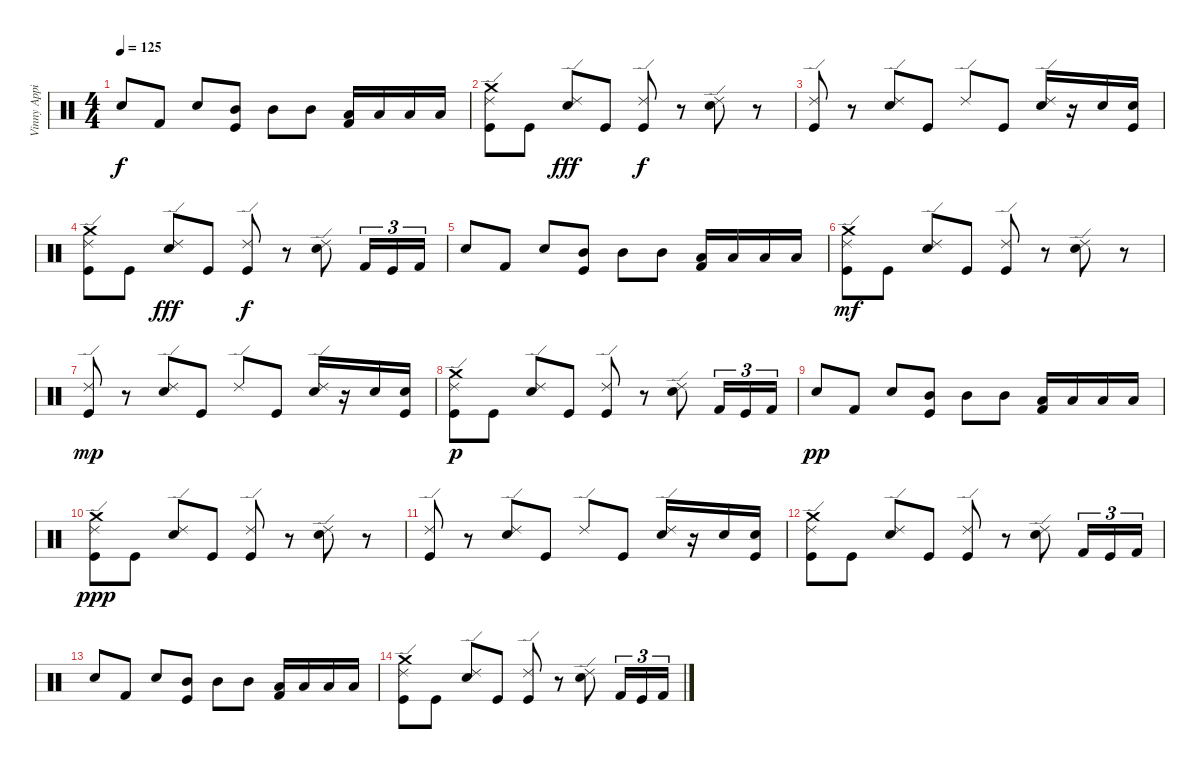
\track ("Vinny Appice - Drums" "Vinny Appi") {instrument percussion}
\staff {score}
\articulation defaults
\ts (4 4)
\tempo 125
\clef neutral
\ks c "Snare (hit) 2".8{dy f} "Kick (hit) 2".8 "Electric Snare (hit)".8
("Kick (hit)" "Mid Tom (hit)").8 "Mid Tom (hit)".8 "Mid Tom (hit)".8 ("Kick (hit) 2" "Low Tom (hit)").16 "Low Tom (hit)".16 "Low Tom (hit)".16 "Low Tom (hit)".16 |
("Kick (hit)" "Ride (edge) 2" "Crash medium (hit)").8 "Kick (hit)".8 ("Ride (edge) 2" "Snare (hit) 2").8{dy fff} "Kick (hit)".8 ("Ride (edge) 2" "Kick (hit)").8{dy f} r.8 ("Ride (edge) 2" "Snare (hit) 2").8 r.8 |
("Ride (edge) 2" "Kick (hit)").8 r.8 ("Ride (edge) 2" "Snare (hit) 2").8 "Kick (hit)".8 "Ride (edge) 2".8 "Kick (hit)".8 ("Ride (edge) 2" "Snare (hit) 2").16 r.16 "Snare (hit) 2".16 ("Kick (hit)" "Snare (hit) 2").16 |
("Kick (hit)" "Ride (edge) 2" "Crash medium (hit)").8 "Kick (hit)".8 ("Ride (edge) 2" "Snare (hit) 2").8{dy fff} "Kick (hit)".8 ("Ride (edge) 2" "Kick (hit)").8{dy f} r.8 ("Ride (edge) 2" "Snare (hit) 2").8 "Kick (hit) 2".16{tu (3 2)} "Kick (hit)".16{tu (3 2)} "Kick (hit) 2".16{tu (3 2)} |
"Snare (hit) 2".8 "Kick (hit) 2".8 "Electric Snare (hit)".8 ("Kick (hit)" "Mid Tom (hit)").8 "Mid Tom (hit)".8 "Mid Tom (hit)".8 ("Kick (hit) 2" "Low Tom (hit)").16 "Low Tom (hit)".16 "Low Tom (hit)".16 "Low Tom (hit)".16 |
("Kick (hit)" "Ride (edge) 2" "Crash medium (hit)").8{dy mf} "Kick (hit)".8 ("Ride (edge) 2" "Snare (hit) 2").8 "Kick (hit)".8 ("Ride (edge) 2" "Kick (hit)").8 r.8 ("Ride (edge) 2" "Snare (hit) 2").8 r.8 |
("Ride (edge) 2" "Kick (hit)").8{dy mp} r.8 ("Ride (edge) 2" "Snare (hit) 2").8 "Kick (hit)".8 "Ride (edge) 2".8 "Kick (hit)".8 ("Ride (edge) 2" "Snare (hit) 2").16 r.16 "Snare (hit) 2".16 ("Kick (hit)" "Snare (hit) 2").16 |
("Kick (hit)" "Ride (edge) 2" "Crash medium (hit)").8{dy p} "Kick (hit)".8 ("Ride (edge) 2" "Snare (hit) 2").8 "Kick (hit)".8 ("Ride (edge) 2" "Kick (hit)").8 r.8 ("Ride (edge) 2" "Snare (hit) 2").8 "Kick (hit) 2".16{tu (3 2)} "Kick (hit)".16{tu (3 2)} "Kick (hit) 2".16{tu (3 2)} |
"Snare (hit) 2".8{dy pp} "Kick (hit) 2".8 "Electric Snare (hit)".8 ("Kick (hit)" "Mid Tom (hit)").8 "Mid Tom (hit)".8 "Mid Tom (hit)".8 ("Kick (hit) 2" "Low Tom (hit)").16 "Low Tom (hit)".16 "Low Tom (hit)".16 "Low Tom (hit)".16 |
("Kick (hit)" "Ride (edge) 2" "Crash medium (hit)").8{dy ppp} "Kick (hit)".8 ("Ride (edge) 2" "Snare (hit) 2").8 "Kick (hit)".8 ("Ride (edge) 2" "Kick (hit)").8 r.8 ("Ride (edge) 2" "Snare (hit) 2").8 r.8 |
("Ride (edge) 2" "Kick (hit)").8{volume 5} r.8 ("Ride (edge) 2" "Snare (hit) 2").8 "Kick (hit)".8 "Ride (edge) 2".8 "Kick (hit)".8 ("Ride (edge) 2" "Snare (hit) 2").16 r.16 "Snare (hit) 2".16 ("Kick (hit)" "Snare (hit) 2").16 |
("Kick (hit)" "Ride (edge) 2" "Crash medium (hit)").8 "Kick (hit)".8 ("Ride (edge) 2" "Snare (hit) 2").8 "Kick (hit)".8 ("Ride (edge) 2" "Kick (hit)").8 r.8 ("Ride (edge) 2" "Snare (hit) 2").8 "Kick (hit) 2".16{tu (3 2)} "Kick (hit)".16{tu (3 2)} "Kick (hit) 2".16{tu (3 2)} |
"Snare (hit) 2".8 "Kick (hit) 2".8 "Electric Snare (hit)".8 ("Kick (hit)" "Mid Tom (hit)").8 "Mid Tom (hit)".8 "Mid Tom (hit)".8 ("Kick (hit) 2" "Low Tom (hit)").16 "Low Tom (hit)".16 "Low Tom (hit)".16 "Low Tom (hit)".16 |
("Kick (hit)" "Ride (edge) 2" "Crash medium (hit)").8 "Kick (hit)".8 ("Ride (edge) 2" "Snare (hit) 2").8 "Kick (hit)".8 ("Ride (edge) 2" "Kick (hit)").8 r.8 ("Ride (edge) 2" "Snare (hit) 2").8 "Kick (hit) 2".16{tu (3 2)} "Kick (hit)".16{tu (3 2)} "Kick (hit) 2".16{tu (3 2)}
